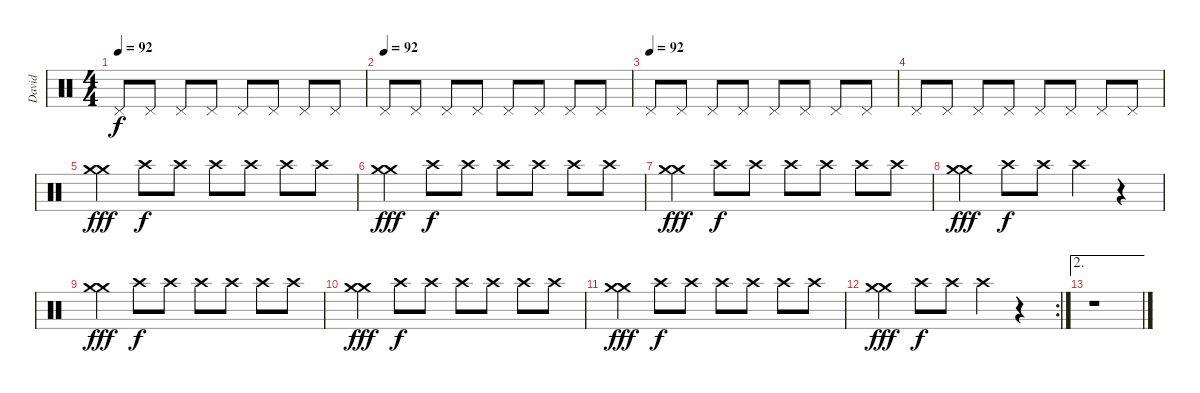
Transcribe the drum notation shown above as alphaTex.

\track ("David" "David") {instrument percussion}
\staff {score}
\articulation defaults
\ts (4 4)
\tempo 92
\clef neutral
\ks c "Pedal Hi-Hat (hit)".8{dy f} "Pedal Hi-Hat (hit)".8 "Pedal Hi-Hat (hit)".8 "Pedal Hi-Hat (hit)".8 "Pedal Hi-Hat (hit)".8 "Pedal Hi-Hat (hit)".8 "Pedal Hi-Hat (hit)".8 "Pedal Hi-Hat (hit)".8
|
\tempo (92)
"Pedal Hi-Hat (hit)".8 "Pedal Hi-Hat (hit)".8 "Pedal Hi-Hat (hit)".8 "Pedal Hi-Hat (hit)".8 "Pedal Hi-Hat (hit)".8 "Pedal Hi-Hat (hit)".8 "Pedal Hi-Hat (hit)".8 "Pedal Hi-Hat (hit)".8 |
\tempo (92)
"Pedal Hi-Hat (hit)".8 "Pedal Hi-Hat (hit)".8 "Pedal Hi-Hat (hit)".8 "Pedal Hi-Hat (hit)".8 "Pedal Hi-Hat (hit)".8 "Pedal Hi-Hat (hit)".8 "Pedal Hi-Hat (hit)".8 "Pedal Hi-Hat (hit)".8 |
"Pedal Hi-Hat (hit)".8 "Pedal Hi-Hat (hit)".8 "Pedal Hi-Hat (hit)".8 "Pedal Hi-Hat (hit)".8 "Pedal Hi-Hat (hit)".8 "Pedal Hi-Hat (hit)".8 "Pedal Hi-Hat (hit)".8 "Pedal Hi-Hat (hit)".8 |
("Crash medium (hit)" "Crash medium (hit)").4{dy fff} "Crash high (hit)".8{dy f} "Crash high (hit)".8 "Crash high (hit)".8 "Crash high (hit)".8 "Crash high (hit)".8 "Crash high (hit)".8 |
("Crash medium (hit)" "Crash medium (hit)").4{dy fff} "Crash high (hit)".8{dy f} "Crash high (hit)".8 "Crash high (hit)".8 "Crash high (hit)".8 "Crash high (hit)".8 "Crash high (hit)".8 |
("Crash medium (hit)" "Crash medium (hit)").4{dy fff} "Crash high (hit)".8{dy f} "Crash high (hit)".8 "Crash high (hit)".8 "Crash high (hit)".8 "Crash high (hit)".8 "Crash high (hit)".8 |
("Crash medium (hit)" "Crash medium (hit)").4{dy fff} "Crash high (hit)".8{dy f} "Crash high (hit)".8 "Crash high (hit)".4 r.4 |
("Crash medium (hit)" "Crash medium (hit)").4{dy fff} "Crash high (hit)".8{dy f} "Crash high (hit)".8 "Crash high (hit)".8 "Crash high (hit)".8 "Crash high (hit)".8 "Crash high (hit)".8 |
("Crash medium (hit)" "Crash medium (hit)").4{dy fff} "Crash high (hit)".8{dy f} "Crash high (hit)".8 "Crash high (hit)".8 "Crash high (hit)".8 "Crash high (hit)".8 "Crash high (hit)".8 |
("Crash medium (hit)" "Crash medium (hit)").4{dy fff} "Crash high (hit)".8{dy f} "Crash high (hit)".8 "Crash high (hit)".8 "Crash high (hit)".8 "Crash high (hit)".8 "Crash high (hit)".8 |
\rc 2
("Crash medium (hit)" "Crash medium (hit)").4{dy fff} "Crash high (hit)".8{dy f} "Crash high (hit)".8 "Crash high (hit)".4 r.4 |
\ae 2
r.1
